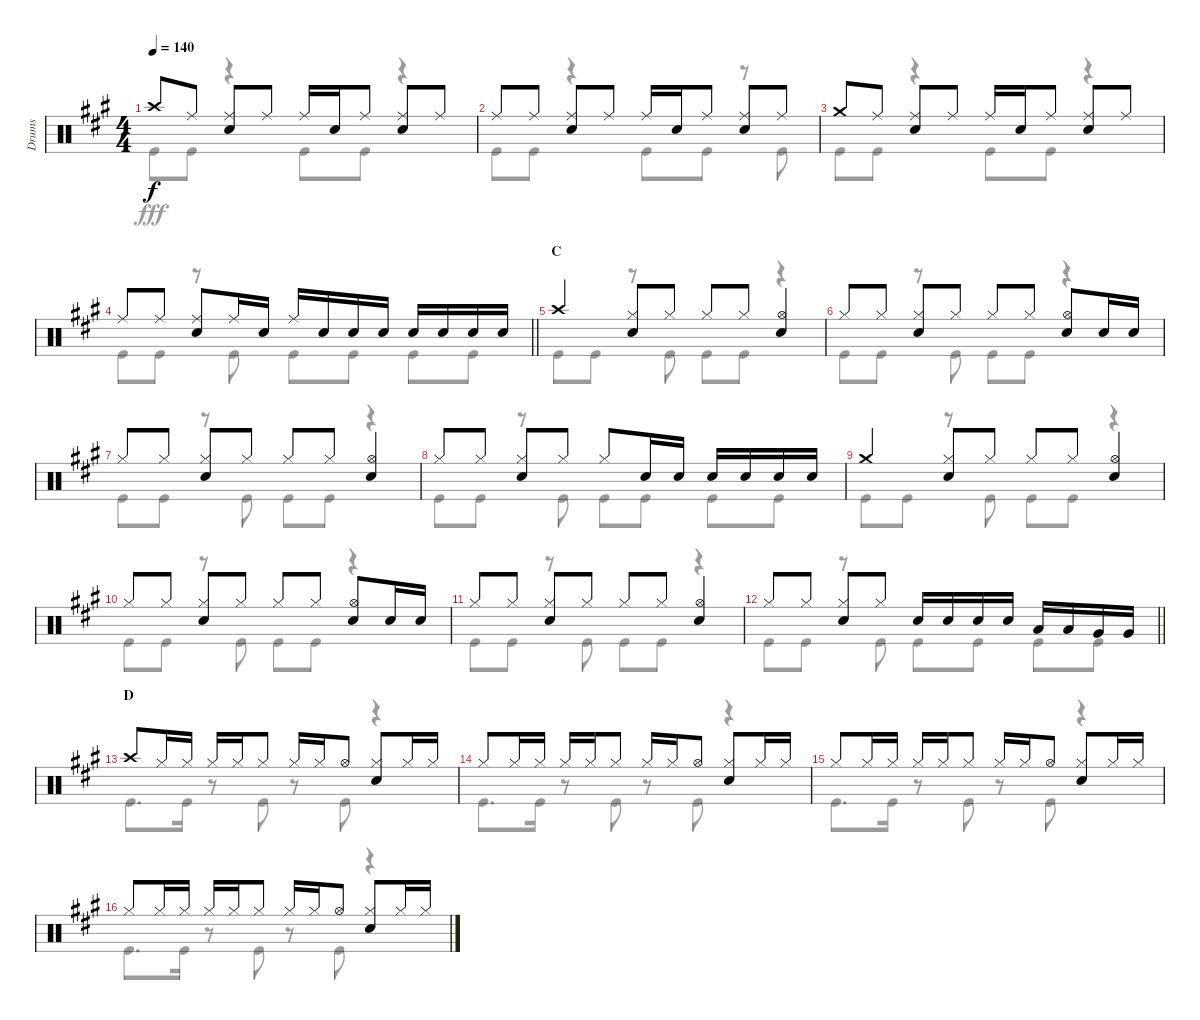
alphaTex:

\track ("Drums" "Drums") {instrument percussion}
\staff {score}
\articulation defaults
\voice
\ts (4 4)
\tempo 140
\clef neutral
\ks a "Crash high (hit)".8{dy f} "Ride (middle)".8
("Ride (middle)" "Snare (hit) 2").8 "Ride (middle)".8 "Ride (middle)".16 "Snare (hit) 2".16 "Ride (middle)".8 ("Ride (middle)" "Snare (hit) 2").8 "Ride (middle)".8 |
"Ride (middle)".8 "Ride (middle)".8 ("Ride (middle)" "Snare (hit) 2").8 "Ride (middle)".8 "Ride (middle)".16 "Snare (hit) 2".16 "Ride (middle)".8 ("Ride (middle)" "Snare (hit) 2").8 "Ride (middle)".8 |
"Crash medium (hit)".8 "Ride (middle)".8 ("Ride (middle)" "Snare (hit) 2").8 "Ride (middle)".8 "Ride (middle)".16 "Snare (hit) 2".16 "Ride (middle)".8 ("Ride (middle)" "Snare (hit) 2").8 "Ride (middle)".8 |
\barLineRight lightlight "Ride (middle)".8 "Ride (middle)".8
("Ride (middle)" "Snare (hit) 2").8 "Ride (middle)".16 "Snare (hit) 2".16 "Ride (middle)".16 "Snare (hit) 2".16 "Snare (hit) 2".16 "Snare (hit) 2".16 "Snare (hit) 2".16 "Snare (hit) 2".16 "Snare (hit) 2".16 "Snare (hit) 2".16 |
\section ("" "C")
"Crash high (hit)".4 ("Hi-Hat (closed)" "Snare (hit) 2").8 "Hi-Hat (closed)".8 "Hi-Hat (closed)".8 "Hi-Hat (closed)".8 ("Hi-Hat (open)" "Snare (hit) 2").4 |
"Hi-Hat (closed)".8 "Hi-Hat (closed)".8 ("Hi-Hat (closed)" "Snare (hit) 2").8 "Hi-Hat (closed)".8 "Hi-Hat (closed)".8 "Hi-Hat (closed)".8 ("Hi-Hat (open)" "Snare (hit) 2").8 "Snare (hit) 2".16 "Snare (hit) 2".16 |
"Hi-Hat (closed)".8 "Hi-Hat (closed)".8 ("Hi-Hat (closed)" "Snare (hit) 2").8 "Hi-Hat (closed)".8 "Hi-Hat (closed)".8 "Hi-Hat (closed)".8 ("Hi-Hat (open)" "Snare (hit) 2").4 |
"Hi-Hat (closed)".8 "Hi-Hat (closed)".8 ("Hi-Hat (closed)" "Snare (hit) 2").8 "Hi-Hat (closed)".8 "Hi-Hat (closed)".8 "Snare (hit) 2".16 "Snare (hit) 2".16 "Snare (hit) 2".16 "Snare (hit) 2".16 "Snare (hit) 2".16 "Snare (hit) 2".16 |
"Crash medium (hit)".4 ("Hi-Hat (closed)" "Snare (hit) 2").8 "Hi-Hat (closed)".8 "Hi-Hat (closed)".8 "Hi-Hat (closed)".8 ("Hi-Hat (open)" "Snare (hit) 2").4 |
"Hi-Hat (closed)".8 "Hi-Hat (closed)".8 ("Hi-Hat (closed)" "Snare (hit) 2").8 "Hi-Hat (closed)".8 "Hi-Hat (closed)".8 "Hi-Hat (closed)".8 ("Hi-Hat (open)" "Snare (hit) 2").8 "Snare (hit) 2".16 "Snare (hit) 2".16 |
"Hi-Hat (closed)".8 "Hi-Hat (closed)".8 ("Hi-Hat (closed)" "Snare (hit) 2").8 "Hi-Hat (closed)".8 "Hi-Hat (closed)".8 "Hi-Hat (closed)".8 ("Hi-Hat (open)" "Snare (hit) 2").4 |
\barLineRight lightlight "Hi-Hat (closed)".8 "Hi-Hat (closed)".8
("Hi-Hat (closed)" "Snare (hit) 2").8 "Hi-Hat (closed)".8 "Snare (hit) 2".16 "Snare (hit) 2".16 "Snare (hit) 2".16 "Snare (hit) 2".16 "Low Tom (hit)".16 "Low Tom (hit)".16 "Very Low Tom (hit)".16 "Very Low Tom (hit)".16 |
\section ("" "D")
"Crash high (hit)".8 "Hi-Hat (closed)".16 "Hi-Hat (closed)".16 "Hi-Hat (closed)".16 "Hi-Hat (closed)".16 "Hi-Hat (closed)".8 "Hi-Hat (closed)".16 "Hi-Hat (closed)".16 "Hi-Hat (open)".8 ("Hi-Hat (closed)" "Snare (hit) 2").8 "Hi-Hat (closed)".16 "Hi-Hat (closed)".16 |
"Hi-Hat (closed)".8 "Hi-Hat (closed)".16 "Hi-Hat (closed)".16 "Hi-Hat (closed)".16 "Hi-Hat (closed)".16 "Hi-Hat (closed)".8 "Hi-Hat (closed)".16 "Hi-Hat (closed)".16 "Hi-Hat (open)".8 ("Hi-Hat (closed)" "Snare (hit) 2").8 "Hi-Hat (closed)".16 "Hi-Hat (closed)".16 |
"Hi-Hat (closed)".8 "Hi-Hat (closed)".16 "Hi-Hat (closed)".16 "Hi-Hat (closed)".16 "Hi-Hat (closed)".16 "Hi-Hat (closed)".8 "Hi-Hat (closed)".16 "Hi-Hat (closed)".16 "Hi-Hat (open)".8 ("Hi-Hat (closed)" "Snare (hit) 2").8 "Hi-Hat (closed)".16 "Hi-Hat (closed)".16 |
"Hi-Hat (closed)".8 "Hi-Hat (closed)".16 "Hi-Hat (closed)".16 "Hi-Hat (closed)".16 "Hi-Hat (closed)".16 "Hi-Hat (closed)".8 "Hi-Hat (closed)".16 "Hi-Hat (closed)".16 "Hi-Hat (open)".8 ("Hi-Hat (closed)" "Snare (hit) 2").8 "Hi-Hat (closed)".16 "Hi-Hat (closed)".16
\voice
\clef neutral
\ottava regular
\simile none
\ks a "Kick (hit)".8{dy fff} "Kick (hit)".8
r.4 "Kick (hit)".8 "Kick (hit)".8 r.4 |
"Kick (hit)".8 "Kick (hit)".8 r.4 "Kick (hit)".8 "Kick (hit)".8 r.8 "Kick (hit)".8 |
"Kick (hit)".8 "Kick (hit)".8 r.4 "Kick (hit)".8 "Kick (hit)".8 r.4 |
\barLineRight lightlight "Kick (hit)".8 "Kick (hit)".8
r.8 "Kick (hit)".8 "Kick (hit)".8 "Kick (hit)".8 "Kick (hit)".8 "Kick (hit)".8 |
"Kick (hit)".8 "Kick (hit)".8 r.8 "Kick (hit)".8 "Kick (hit)".8 "Kick (hit)".8 r.4 |
"Kick (hit)".8 "Kick (hit)".8 r.8 "Kick (hit)".8 "Kick (hit)".8 "Kick (hit)".8 r.4 |
"Kick (hit)".8 "Kick (hit)".8 r.8 "Kick (hit)".8 "Kick (hit)".8 "Kick (hit)".8 r.4 |
"Kick (hit)".8 "Kick (hit)".8 r.8 "Kick (hit)".8 "Kick (hit)".8 "Kick (hit)".8 "Kick (hit)".8 "Kick (hit)".8 |
"Kick (hit)".8 "Kick (hit)".8 r.8 "Kick (hit)".8 "Kick (hit)".8 "Kick (hit)".8 r.4 |
"Kick (hit)".8 "Kick (hit)".8 r.8 "Kick (hit)".8 "Kick (hit)".8 "Kick (hit)".8 r.4 |
"Kick (hit)".8 "Kick (hit)".8 r.8 "Kick (hit)".8 "Kick (hit)".8 "Kick (hit)".8 r.4 |
\barLineRight lightlight "Kick (hit)".8 "Kick (hit)".8
r.8 "Kick (hit)".8 "Kick (hit)".8 "Kick (hit)".8 "Kick (hit)".8 "Kick (hit)".8 |
"Kick (hit)".8{d} "Kick (hit)".16 r.8 "Kick (hit)".8 r.8 "Kick (hit)".8 r.4 |
"Kick (hit)".8{d} "Kick (hit)".16 r.8 "Kick (hit)".8 r.8 "Kick (hit)".8 r.4 |
"Kick (hit)".8{d} "Kick (hit)".16 r.8 "Kick (hit)".8 r.8 "Kick (hit)".8 r.4 |
"Kick (hit)".8{d} "Kick (hit)".16 r.8 "Kick (hit)".8 r.8 "Kick (hit)".8 r.4
